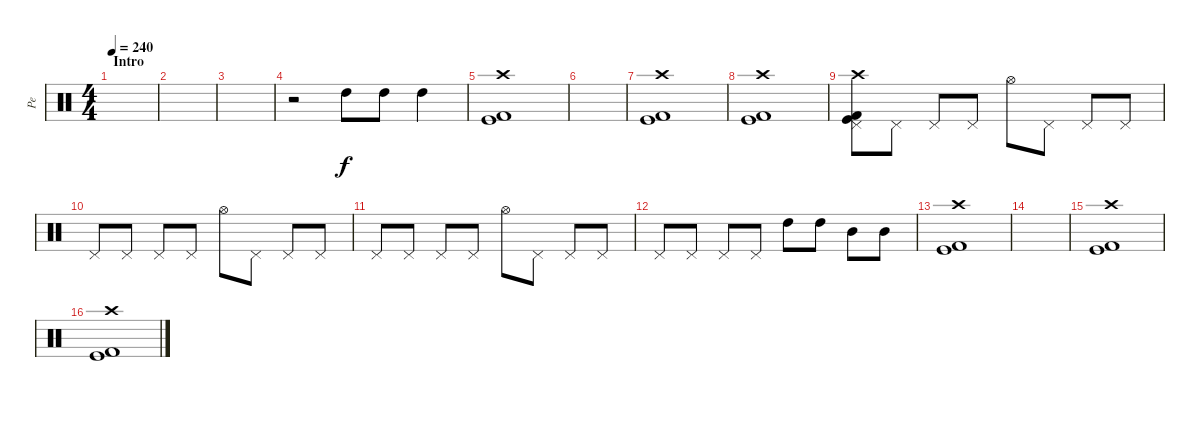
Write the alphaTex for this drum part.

\track ("Pe" "Pe") {instrument percussion}
\staff {score}
\articulation defaults
\ts (4 4)
\section ("" "Intro")
\tempo 240
\clef neutral
\ks c
|
|
|
r.2 "High Tom (hit)".8 "High Tom (hit)".8 "High Tom (hit)".4 |
("Crash high (hit)" "Kick (hit)" "Kick (hit) 2").1 |
|
("Crash high (hit)" "Kick (hit)" "Kick (hit) 2").1 |
("Crash high (hit)" "Kick (hit)" "Kick (hit) 2").1 |
("Pedal Hi-Hat (hit)" "Crash high (hit)" "Kick (hit)" "Kick (hit) 2").8 "Pedal Hi-Hat (hit)".8 "Pedal Hi-Hat (hit)".8 "Pedal Hi-Hat (hit)".8 "Hi-Hat (open)".8 "Pedal Hi-Hat (hit)".8 "Pedal Hi-Hat (hit)".8 "Pedal Hi-Hat (hit)".8 |
"Pedal Hi-Hat (hit)".8 "Pedal Hi-Hat (hit)".8 "Pedal Hi-Hat (hit)".8 "Pedal Hi-Hat (hit)".8 "Hi-Hat (open)".8 "Pedal Hi-Hat (hit)".8 "Pedal Hi-Hat (hit)".8 "Pedal Hi-Hat (hit)".8 |
"Pedal Hi-Hat (hit)".8 "Pedal Hi-Hat (hit)".8 "Pedal Hi-Hat (hit)".8 "Pedal Hi-Hat (hit)".8 "Hi-Hat (open)".8 "Pedal Hi-Hat (hit)".8 "Pedal Hi-Hat (hit)".8 "Pedal Hi-Hat (hit)".8 |
"Pedal Hi-Hat (hit)".8 "Pedal Hi-Hat (hit)".8 "Pedal Hi-Hat (hit)".8 "Pedal Hi-Hat (hit)".8 "High Tom (hit)".8 "High Tom (hit)".8 "Mid Tom (hit)".8 "Mid Tom (hit)".8 |
("Crash high (hit)" "Kick (hit)" "Kick (hit) 2").1 |
|
("Crash high (hit)" "Kick (hit)" "Kick (hit) 2").1 |
("Crash high (hit)" "Kick (hit)" "Kick (hit) 2").1
